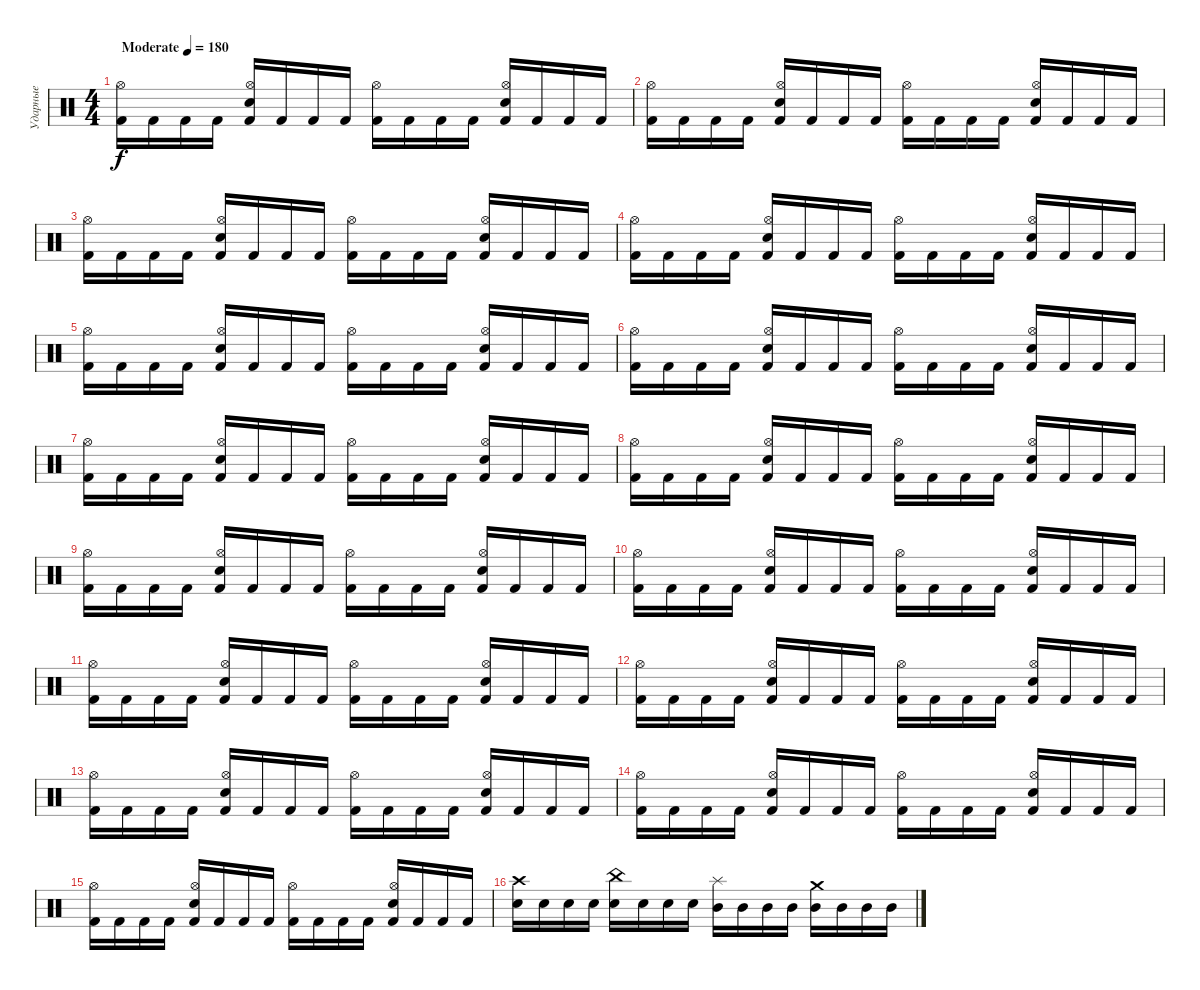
\track ("Ударные" "Ударные") {instrument percussion}
\staff {score}
\articulation defaults
\ts (4 4)
\tempo (180 "Moderate")
\clef neutral
\ks c
("Kick (hit) 2" "Hi-Hat (open)").16{dy f} "Kick (hit) 2".16 "Kick (hit) 2".16 "Kick (hit) 2".16 ("Kick (hit) 2" "Electric Snare (hit)" "Hi-Hat (open)").16 "Kick (hit) 2".16 "Kick (hit) 2".16 "Kick (hit) 2".16 ("Kick (hit) 2" "Hi-Hat (open)").16 "Kick (hit) 2".16 "Kick (hit) 2".16 "Kick (hit) 2".16 ("Kick (hit) 2" "Electric Snare (hit)" "Hi-Hat (open)").16 "Kick (hit) 2".16 "Kick (hit) 2".16 "Kick (hit) 2".16 |
("Kick (hit) 2" "Hi-Hat (open)").16 "Kick (hit) 2".16 "Kick (hit) 2".16 "Kick (hit) 2".16 ("Kick (hit) 2" "Electric Snare (hit)" "Hi-Hat (open)").16 "Kick (hit) 2".16 "Kick (hit) 2".16 "Kick (hit) 2".16 ("Kick (hit) 2" "Hi-Hat (open)").16 "Kick (hit) 2".16 "Kick (hit) 2".16 "Kick (hit) 2".16 ("Kick (hit) 2" "Electric Snare (hit)" "Hi-Hat (open)").16 "Kick (hit) 2".16 "Kick (hit) 2".16 "Kick (hit) 2".16 |
("Kick (hit) 2" "Hi-Hat (open)").16 "Kick (hit) 2".16 "Kick (hit) 2".16 "Kick (hit) 2".16 ("Kick (hit) 2" "Electric Snare (hit)" "Hi-Hat (open)").16 "Kick (hit) 2".16 "Kick (hit) 2".16 "Kick (hit) 2".16 ("Kick (hit) 2" "Hi-Hat (open)").16 "Kick (hit) 2".16 "Kick (hit) 2".16 "Kick (hit) 2".16 ("Kick (hit) 2" "Electric Snare (hit)" "Hi-Hat (open)").16 "Kick (hit) 2".16 "Kick (hit) 2".16 "Kick (hit) 2".16 |
("Kick (hit) 2" "Hi-Hat (open)").16 "Kick (hit) 2".16 "Kick (hit) 2".16 "Kick (hit) 2".16 ("Kick (hit) 2" "Electric Snare (hit)" "Hi-Hat (open)").16 "Kick (hit) 2".16 "Kick (hit) 2".16 "Kick (hit) 2".16 ("Kick (hit) 2" "Hi-Hat (open)").16 "Kick (hit) 2".16 "Kick (hit) 2".16 "Kick (hit) 2".16 ("Kick (hit) 2" "Electric Snare (hit)" "Hi-Hat (open)").16 "Kick (hit) 2".16 "Kick (hit) 2".16 "Kick (hit) 2".16 |
("Kick (hit) 2" "Hi-Hat (open)").16 "Kick (hit) 2".16 "Kick (hit) 2".16 "Kick (hit) 2".16 ("Kick (hit) 2" "Electric Snare (hit)" "Hi-Hat (open)").16 "Kick (hit) 2".16 "Kick (hit) 2".16 "Kick (hit) 2".16 ("Kick (hit) 2" "Hi-Hat (open)").16 "Kick (hit) 2".16 "Kick (hit) 2".16 "Kick (hit) 2".16 ("Kick (hit) 2" "Electric Snare (hit)" "Hi-Hat (open)").16 "Kick (hit) 2".16 "Kick (hit) 2".16 "Kick (hit) 2".16 |
("Kick (hit) 2" "Hi-Hat (open)").16 "Kick (hit) 2".16 "Kick (hit) 2".16 "Kick (hit) 2".16 ("Kick (hit) 2" "Electric Snare (hit)" "Hi-Hat (open)").16 "Kick (hit) 2".16 "Kick (hit) 2".16 "Kick (hit) 2".16 ("Kick (hit) 2" "Hi-Hat (open)").16 "Kick (hit) 2".16 "Kick (hit) 2".16 "Kick (hit) 2".16 ("Kick (hit) 2" "Electric Snare (hit)" "Hi-Hat (open)").16 "Kick (hit) 2".16 "Kick (hit) 2".16 "Kick (hit) 2".16 |
("Kick (hit) 2" "Hi-Hat (open)").16 "Kick (hit) 2".16 "Kick (hit) 2".16 "Kick (hit) 2".16 ("Kick (hit) 2" "Electric Snare (hit)" "Hi-Hat (open)").16 "Kick (hit) 2".16 "Kick (hit) 2".16 "Kick (hit) 2".16 ("Kick (hit) 2" "Hi-Hat (open)").16 "Kick (hit) 2".16 "Kick (hit) 2".16 "Kick (hit) 2".16 ("Kick (hit) 2" "Electric Snare (hit)" "Hi-Hat (open)").16 "Kick (hit) 2".16 "Kick (hit) 2".16 "Kick (hit) 2".16 |
("Kick (hit) 2" "Hi-Hat (open)").16 "Kick (hit) 2".16 "Kick (hit) 2".16 "Kick (hit) 2".16 ("Kick (hit) 2" "Electric Snare (hit)" "Hi-Hat (open)").16 "Kick (hit) 2".16 "Kick (hit) 2".16 "Kick (hit) 2".16 ("Kick (hit) 2" "Hi-Hat (open)").16 "Kick (hit) 2".16 "Kick (hit) 2".16 "Kick (hit) 2".16 ("Kick (hit) 2" "Electric Snare (hit)" "Hi-Hat (open)").16 "Kick (hit) 2".16 "Kick (hit) 2".16 "Kick (hit) 2".16 |
("Kick (hit) 2" "Hi-Hat (open)").16 "Kick (hit) 2".16 "Kick (hit) 2".16 "Kick (hit) 2".16 ("Kick (hit) 2" "Electric Snare (hit)" "Hi-Hat (open)").16 "Kick (hit) 2".16 "Kick (hit) 2".16 "Kick (hit) 2".16 ("Kick (hit) 2" "Hi-Hat (open)").16 "Kick (hit) 2".16 "Kick (hit) 2".16 "Kick (hit) 2".16 ("Kick (hit) 2" "Electric Snare (hit)" "Hi-Hat (open)").16 "Kick (hit) 2".16 "Kick (hit) 2".16 "Kick (hit) 2".16 |
("Kick (hit) 2" "Hi-Hat (open)").16 "Kick (hit) 2".16 "Kick (hit) 2".16 "Kick (hit) 2".16 ("Kick (hit) 2" "Electric Snare (hit)" "Hi-Hat (open)").16 "Kick (hit) 2".16 "Kick (hit) 2".16 "Kick (hit) 2".16 ("Kick (hit) 2" "Hi-Hat (open)").16 "Kick (hit) 2".16 "Kick (hit) 2".16 "Kick (hit) 2".16 ("Kick (hit) 2" "Electric Snare (hit)" "Hi-Hat (open)").16 "Kick (hit) 2".16 "Kick (hit) 2".16 "Kick (hit) 2".16 |
("Kick (hit) 2" "Hi-Hat (open)").16 "Kick (hit) 2".16 "Kick (hit) 2".16 "Kick (hit) 2".16 ("Kick (hit) 2" "Electric Snare (hit)" "Hi-Hat (open)").16 "Kick (hit) 2".16 "Kick (hit) 2".16 "Kick (hit) 2".16 ("Kick (hit) 2" "Hi-Hat (open)").16 "Kick (hit) 2".16 "Kick (hit) 2".16 "Kick (hit) 2".16 ("Kick (hit) 2" "Electric Snare (hit)" "Hi-Hat (open)").16 "Kick (hit) 2".16 "Kick (hit) 2".16 "Kick (hit) 2".16 |
("Kick (hit) 2" "Hi-Hat (open)").16 "Kick (hit) 2".16 "Kick (hit) 2".16 "Kick (hit) 2".16 ("Kick (hit) 2" "Electric Snare (hit)" "Hi-Hat (open)").16 "Kick (hit) 2".16 "Kick (hit) 2".16 "Kick (hit) 2".16 ("Kick (hit) 2" "Hi-Hat (open)").16 "Kick (hit) 2".16 "Kick (hit) 2".16 "Kick (hit) 2".16 ("Kick (hit) 2" "Electric Snare (hit)" "Hi-Hat (open)").16 "Kick (hit) 2".16 "Kick (hit) 2".16 "Kick (hit) 2".16 |
("Kick (hit) 2" "Hi-Hat (open)").16 "Kick (hit) 2".16 "Kick (hit) 2".16 "Kick (hit) 2".16 ("Kick (hit) 2" "Electric Snare (hit)" "Hi-Hat (open)").16 "Kick (hit) 2".16 "Kick (hit) 2".16 "Kick (hit) 2".16 ("Kick (hit) 2" "Hi-Hat (open)").16 "Kick (hit) 2".16 "Kick (hit) 2".16 "Kick (hit) 2".16 ("Kick (hit) 2" "Electric Snare (hit)" "Hi-Hat (open)").16 "Kick (hit) 2".16 "Kick (hit) 2".16 "Kick (hit) 2".16 |
("Kick (hit) 2" "Hi-Hat (open)").16 "Kick (hit) 2".16 "Kick (hit) 2".16 "Kick (hit) 2".16 ("Kick (hit) 2" "Electric Snare (hit)" "Hi-Hat (open)").16 "Kick (hit) 2".16 "Kick (hit) 2".16 "Kick (hit) 2".16 ("Kick (hit) 2" "Hi-Hat (open)").16 "Kick (hit) 2".16 "Kick (hit) 2".16 "Kick (hit) 2".16 ("Kick (hit) 2" "Electric Snare (hit)" "Hi-Hat (open)").16 "Kick (hit) 2".16 "Kick (hit) 2".16 "Kick (hit) 2".16 |
("Kick (hit) 2" "Hi-Hat (open)").16 "Kick (hit) 2".16 "Kick (hit) 2".16 "Kick (hit) 2".16 ("Kick (hit) 2" "Electric Snare (hit)" "Hi-Hat (open)").16 "Kick (hit) 2".16 "Kick (hit) 2".16 "Kick (hit) 2".16 ("Kick (hit) 2" "Hi-Hat (open)").16 "Kick (hit) 2".16 "Kick (hit) 2".16 "Kick (hit) 2".16 ("Kick (hit) 2" "Electric Snare (hit)" "Hi-Hat (open)").16 "Kick (hit) 2".16 "Kick (hit) 2".16 "Kick (hit) 2".16 |
("Electric Snare (hit)" "Crash high (hit)").16 "Electric Snare (hit)".16 "Electric Snare (hit)".16 "Electric Snare (hit)".16 ("Electric Snare (hit)" "China (hit)").16 "Electric Snare (hit)".16 "Electric Snare (hit)".16 "Electric Snare (hit)".16 ("Mid Tom (hit)" "Splash (hit)").16 "Mid Tom (hit)".16 "Mid Tom (hit)".16 "Mid Tom (hit)".16 ("Mid Tom (hit)" "Crash medium (hit)").16 "Mid Tom (hit)".16 "Mid Tom (hit)".16 "Mid Tom (hit)".16
